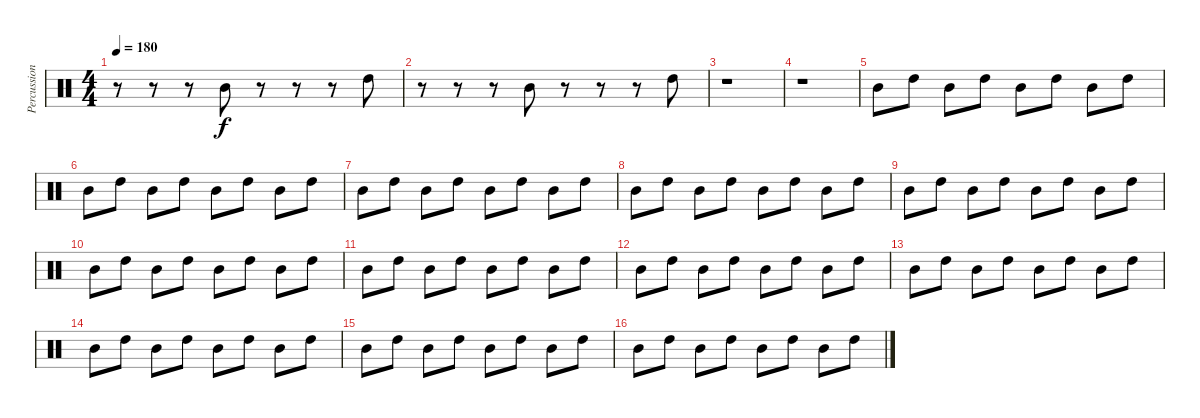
\track ("Percussions" "Percussion") {instrument percussion}
\staff {score}
\articulation defaults
\ts (4 4)
\tempo 180
\clef neutral
\ks c
r.8{dy f} r.8 r.8 "Mid Tom (hit)".8 r.8 r.8 r.8 "High Tom (hit)".8 |
r.8 r.8 r.8 "Mid Tom (hit)".8 r.8 r.8 r.8 "High Tom (hit)".8 |
r.1 |
r.1 |
"Mid Tom (hit)".8 "High Tom (hit)".8 "Mid Tom (hit)".8 "High Tom (hit)".8 "Mid Tom (hit)".8 "High Tom (hit)".8 "Mid Tom (hit)".8 "High Tom (hit)".8 |
"Mid Tom (hit)".8 "High Tom (hit)".8 "Mid Tom (hit)".8 "High Tom (hit)".8 "Mid Tom (hit)".8 "High Tom (hit)".8 "Mid Tom (hit)".8 "High Tom (hit)".8 |
"Mid Tom (hit)".8 "High Tom (hit)".8 "Mid Tom (hit)".8 "High Tom (hit)".8 "Mid Tom (hit)".8 "High Tom (hit)".8 "Mid Tom (hit)".8 "High Tom (hit)".8 |
"Mid Tom (hit)".8 "High Tom (hit)".8 "Mid Tom (hit)".8 "High Tom (hit)".8 "Mid Tom (hit)".8 "High Tom (hit)".8 "Mid Tom (hit)".8 "High Tom (hit)".8 |
"Mid Tom (hit)".8 "High Tom (hit)".8 "Mid Tom (hit)".8 "High Tom (hit)".8 "Mid Tom (hit)".8 "High Tom (hit)".8 "Mid Tom (hit)".8 "High Tom (hit)".8 |
"Mid Tom (hit)".8 "High Tom (hit)".8 "Mid Tom (hit)".8 "High Tom (hit)".8 "Mid Tom (hit)".8 "High Tom (hit)".8 "Mid Tom (hit)".8 "High Tom (hit)".8 |
"Mid Tom (hit)".8 "High Tom (hit)".8 "Mid Tom (hit)".8 "High Tom (hit)".8 "Mid Tom (hit)".8 "High Tom (hit)".8 "Mid Tom (hit)".8 "High Tom (hit)".8 |
"Mid Tom (hit)".8 "High Tom (hit)".8 "Mid Tom (hit)".8 "High Tom (hit)".8 "Mid Tom (hit)".8 "High Tom (hit)".8 "Mid Tom (hit)".8 "High Tom (hit)".8 |
"Mid Tom (hit)".8 "High Tom (hit)".8 "Mid Tom (hit)".8 "High Tom (hit)".8 "Mid Tom (hit)".8 "High Tom (hit)".8 "Mid Tom (hit)".8 "High Tom (hit)".8 |
"Mid Tom (hit)".8 "High Tom (hit)".8 "Mid Tom (hit)".8 "High Tom (hit)".8 "Mid Tom (hit)".8 "High Tom (hit)".8 "Mid Tom (hit)".8 "High Tom (hit)".8 |
"Mid Tom (hit)".8 "High Tom (hit)".8 "Mid Tom (hit)".8 "High Tom (hit)".8 "Mid Tom (hit)".8 "High Tom (hit)".8 "Mid Tom (hit)".8 "High Tom (hit)".8 |
"Mid Tom (hit)".8 "High Tom (hit)".8 "Mid Tom (hit)".8 "High Tom (hit)".8 "Mid Tom (hit)".8 "High Tom (hit)".8 "Mid Tom (hit)".8 "High Tom (hit)".8
